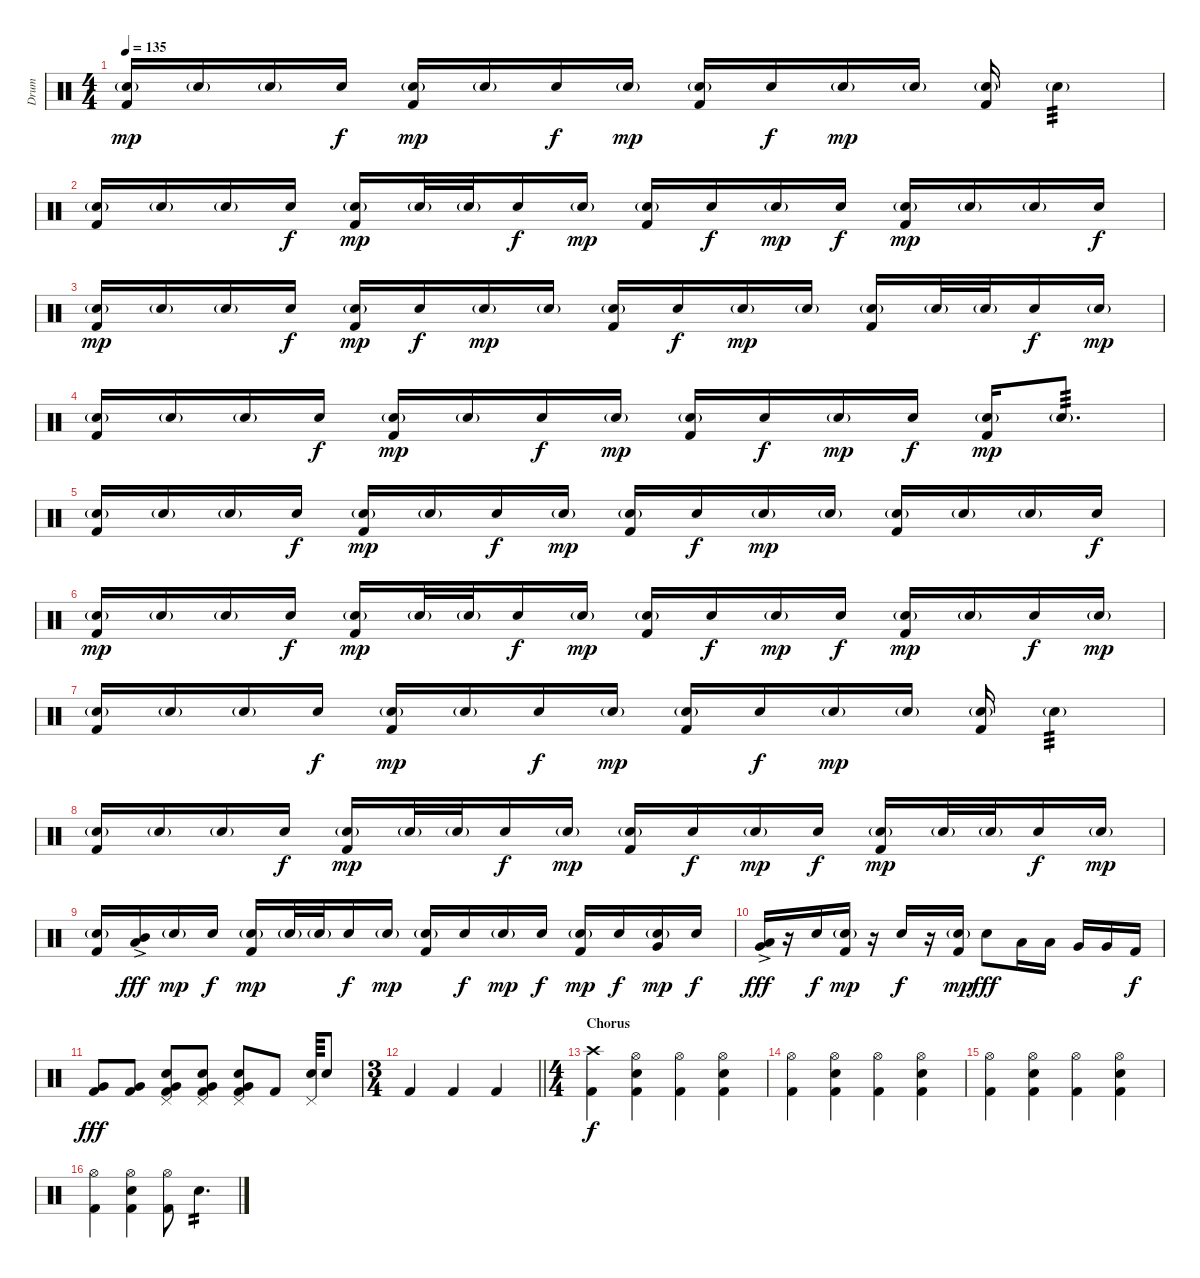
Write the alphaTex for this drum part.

\track ("Drum" "Drum") {instrument percussion bank 127}
\staff {score}
\articulation defaults
\ts (4 4)
\tempo 135
\clef neutral
\ks c
("Kick (hit) 2" "Electric Snare (hit)"{g}).16{dy mp} "Electric Snare (hit)"{g}.16 "Electric Snare (hit)"{g}.16 "Electric Snare (hit)".16{dy f} ("Kick (hit) 2" "Electric Snare (hit)"{g}).16{dy mp} "Electric Snare (hit)"{g}.16 "Electric Snare (hit)".16{dy f} "Electric Snare (hit)"{g}.16{dy mp} ("Kick (hit) 2" "Electric Snare (hit)"{g}).16 "Electric Snare (hit)".16{dy f} "Electric Snare (hit)"{g}.16{dy mp} "Electric Snare (hit)"{g}.16 ("Kick (hit) 2" "Electric Snare (hit)"{g}).16 "Electric Snare (hit)"{g}.4{tp 3} |
("Kick (hit) 2" "Electric Snare (hit)"{g}).16 "Electric Snare (hit)"{g}.16 "Electric Snare (hit)"{g}.16 "Electric Snare (hit)".16{dy f} ("Kick (hit) 2" "Electric Snare (hit)"{g}).16{dy mp} "Electric Snare (hit)"{g}.32 "Electric Snare (hit)"{g}.32 "Electric Snare (hit)".16{dy f} "Electric Snare (hit)"{g}.16{dy mp} ("Kick (hit) 2" "Electric Snare (hit)"{g}).16 "Electric Snare (hit)".16{dy f} "Electric Snare (hit)"{g}.16{dy mp} "Electric Snare (hit)".16{dy f} ("Kick (hit) 2" "Electric Snare (hit)"{g}).16{dy mp} "Electric Snare (hit)"{g}.16 "Electric Snare (hit)"{g}.16 "Electric Snare (hit)".16{dy f} |
("Kick (hit) 2" "Electric Snare (hit)"{g}).16{dy mp} "Electric Snare (hit)"{g}.16 "Electric Snare (hit)"{g}.16 "Electric Snare (hit)".16{dy f} ("Kick (hit) 2" "Electric Snare (hit)"{g}).16{dy mp} "Electric Snare (hit)".16{dy f} "Electric Snare (hit)"{g}.16{dy mp} "Electric Snare (hit)"{g}.16 ("Kick (hit) 2" "Electric Snare (hit)"{g}).16 "Electric Snare (hit)".16{dy f} "Electric Snare (hit)"{g}.16{dy mp} "Electric Snare (hit)"{g}.16 ("Kick (hit) 2" "Electric Snare (hit)"{g}).16 "Electric Snare (hit)"{g}.32 "Electric Snare (hit)"{g}.32 "Electric Snare (hit)".16{dy f} "Electric Snare (hit)"{g}.16{dy mp} |
("Kick (hit) 2" "Electric Snare (hit)"{g}).16 "Electric Snare (hit)"{g}.16 "Electric Snare (hit)"{g}.16 "Electric Snare (hit)".16{dy f} ("Kick (hit) 2" "Electric Snare (hit)"{g}).16{dy mp} "Electric Snare (hit)"{g}.16 "Electric Snare (hit)".16{dy f} "Electric Snare (hit)"{g}.16{dy mp} ("Kick (hit) 2" "Electric Snare (hit)"{g}).16 "Electric Snare (hit)".16{dy f} "Electric Snare (hit)"{g}.16{dy mp} "Electric Snare (hit)".16{dy f} ("Kick (hit) 2" "Electric Snare (hit)"{g}).16{dy mp} "Electric Snare (hit)"{g}.8{d tp 3} |
("Kick (hit) 2" "Electric Snare (hit)"{g}).16 "Electric Snare (hit)"{g}.16 "Electric Snare (hit)"{g}.16 "Electric Snare (hit)".16{dy f} ("Kick (hit) 2" "Electric Snare (hit)"{g}).16{dy mp} "Electric Snare (hit)"{g}.16 "Electric Snare (hit)".16{dy f} "Electric Snare (hit)"{g}.16{dy mp} ("Kick (hit) 2" "Electric Snare (hit)"{g}).16 "Electric Snare (hit)".16{dy f} "Electric Snare (hit)"{g}.16{dy mp} "Electric Snare (hit)"{g}.16 ("Kick (hit) 2" "Electric Snare (hit)"{g}).16 "Electric Snare (hit)"{g}.16 "Electric Snare (hit)"{g}.16 "Electric Snare (hit)".16{dy f} |
("Kick (hit) 2" "Electric Snare (hit)"{g}).16{dy mp} "Electric Snare (hit)"{g}.16 "Electric Snare (hit)"{g}.16 "Electric Snare (hit)".16{dy f} ("Kick (hit) 2" "Electric Snare (hit)"{g}).16{dy mp} "Electric Snare (hit)"{g}.32 "Electric Snare (hit)"{g}.32 "Electric Snare (hit)".16{dy f} "Electric Snare (hit)"{g}.16{dy mp} ("Kick (hit) 2" "Electric Snare (hit)"{g}).16 "Electric Snare (hit)".16{dy f} "Electric Snare (hit)"{g}.16{dy mp} "Electric Snare (hit)".16{dy f} ("Kick (hit) 2" "Electric Snare (hit)"{g}).16{dy mp} "Electric Snare (hit)"{g}.16 "Electric Snare (hit)".16{dy f} "Electric Snare (hit)"{g}.16{dy mp} |
("Kick (hit) 2" "Electric Snare (hit)"{g}).16 "Electric Snare (hit)"{g}.16 "Electric Snare (hit)"{g}.16 "Electric Snare (hit)".16{dy f} ("Kick (hit) 2" "Electric Snare (hit)"{g}).16{dy mp} "Electric Snare (hit)"{g}.16 "Electric Snare (hit)".16{dy f} "Electric Snare (hit)"{g}.16{dy mp} ("Kick (hit) 2" "Electric Snare (hit)"{g}).16 "Electric Snare (hit)".16{dy f} "Electric Snare (hit)"{g}.16{dy mp} "Electric Snare (hit)"{g}.16 ("Kick (hit) 2" "Electric Snare (hit)"{g}).16 "Electric Snare (hit)"{g}.4{tp 3} |
("Kick (hit) 2" "Electric Snare (hit)"{g}).16 "Electric Snare (hit)"{g}.16 "Electric Snare (hit)"{g}.16 "Electric Snare (hit)".16{dy f} ("Kick (hit) 2" "Electric Snare (hit)"{g}).16{dy mp} "Electric Snare (hit)"{g}.32 "Electric Snare (hit)"{g}.32 "Electric Snare (hit)".16{dy f} "Electric Snare (hit)"{g}.16{dy mp} ("Kick (hit) 2" "Electric Snare (hit)"{g}).16 "Electric Snare (hit)".16{dy f} "Electric Snare (hit)"{g}.16{dy mp} "Electric Snare (hit)".16{dy f} ("Kick (hit) 2" "Electric Snare (hit)"{g}).16{dy mp} "Electric Snare (hit)"{g}.32 "Electric Snare (hit)"{g}.32 "Electric Snare (hit)".16{dy f} "Electric Snare (hit)"{g}.16{dy mp} |
("Kick (hit) 2" "Electric Snare (hit)"{g}).16 ("Mid Tom (hit)" "Low Tom (hit)"{ac}).16{dy fff} "Electric Snare (hit)"{g}.16{dy mp} "Electric Snare (hit)".16{dy f} ("Kick (hit) 2" "Electric Snare (hit)"{g}).16{dy mp} "Electric Snare (hit)"{g}.32 "Electric Snare (hit)"{g}.32 "Electric Snare (hit)".16{dy f} "Electric Snare (hit)"{g}.16{dy mp} ("Kick (hit) 2" "Electric Snare (hit)"{g}).16 "Electric Snare (hit)".16{dy f} "Electric Snare (hit)"{g}.16{dy mp} "Electric Snare (hit)".16{dy f} ("Kick (hit) 2" "Electric Snare (hit)"{g}).16{dy mp} "Electric Snare (hit)".16{dy f} ("Very Low Tom (hit)" "Electric Snare (hit)"{g}).16{dy mp} "Electric Snare (hit)".16{dy f} |
("Very Low Tom (hit)" "Low Tom (hit)"{ac}).16{dy fff} r.16 "Electric Snare (hit)".16{dy f} ("Kick (hit) 2" "Electric Snare (hit)"{g}).16{dy mp} r.16 "Electric Snare (hit)".16{dy f} r.16 ("Kick (hit) 2" "Electric Snare (hit)"{g}).16{dy mp} "Electric Snare (hit)".8{dy fff} "Low Tom (hit)".16 "Low Tom (hit)".16 "Very Low Tom (hit)".16 "Very Low Tom (hit)".16 "Kick (hit) 2".16{dy f} |
("Kick (hit) 2" "Very Low Tom (hit)").8{dy fff} ("Kick (hit) 2" "Very Low Tom (hit)").8 ("Electric Snare (hit)" "Kick (hit) 2" "Very Low Tom (hit)" "Pedal Hi-Hat (hit)").8 ("Electric Snare (hit)" "Kick (hit) 2" "Very Low Tom (hit)" "Pedal Hi-Hat (hit)").8 ("Electric Snare (hit)" "Kick (hit) 2" "Very Low Tom (hit)" "Pedal Hi-Hat (hit)").8 "Kick (hit) 2".8 ("Electric Snare (hit)" "Pedal Hi-Hat (hit)").64 "Electric Snare (hit)".8 |
\ts (3 4)
\barLineRight lightlight "Kick (hit) 2".4 "Kick (hit) 2".4 "Kick (hit) 2".4
|
\ts (4 4)
\section ("" "Chorus")
("Kick (hit) 2" "Crash high (hit)").4{dy f} ("Hi-Hat (open)" "Kick (hit) 2" "Electric Snare (hit)").4 ("Hi-Hat (open)" "Kick (hit) 2").4 ("Hi-Hat (open)" "Kick (hit) 2" "Electric Snare (hit)").4 |
("Hi-Hat (open)" "Kick (hit) 2").4 ("Hi-Hat (open)" "Kick (hit) 2" "Electric Snare (hit)").4 ("Hi-Hat (open)" "Kick (hit) 2").4 ("Hi-Hat (open)" "Kick (hit) 2" "Electric Snare (hit)").4 |
("Hi-Hat (open)" "Kick (hit) 2").4 ("Hi-Hat (open)" "Kick (hit) 2" "Electric Snare (hit)").4 ("Hi-Hat (open)" "Kick (hit) 2").4 ("Hi-Hat (open)" "Kick (hit) 2" "Electric Snare (hit)").4 |
("Hi-Hat (open)" "Kick (hit) 2").4 ("Hi-Hat (open)" "Kick (hit) 2" "Electric Snare (hit)").4 ("Hi-Hat (open)" "Kick (hit) 2").8 "Electric Snare (hit)".4{d tp 2}
